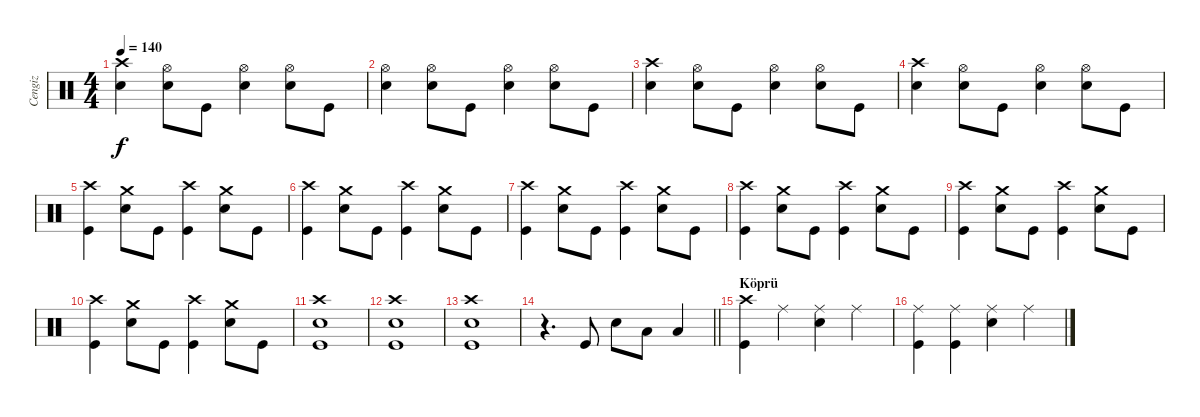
\track ("Cengiz" "Cengiz") {instrument percussion}
\staff {score}
\articulation defaults
\ts (4 4)
\tempo 140
\clef neutral
\ks c
("Crash high (hit)" "Electric Snare (hit)").4{dy f} ("Hi-Hat (open)" "Electric Snare (hit)").8 "Kick (hit)".8 ("Hi-Hat (open)" "Electric Snare (hit)").4 ("Hi-Hat (open)" "Electric Snare (hit)").8 "Kick (hit)".8 |
("Hi-Hat (open)" "Electric Snare (hit)").4 ("Hi-Hat (open)" "Electric Snare (hit)").8 "Kick (hit)".8 ("Hi-Hat (open)" "Electric Snare (hit)").4 ("Hi-Hat (open)" "Electric Snare (hit)").8 "Kick (hit)".8 |
("Crash high (hit)" "Electric Snare (hit)").4 ("Hi-Hat (open)" "Electric Snare (hit)").8 "Kick (hit)".8 ("Hi-Hat (open)" "Electric Snare (hit)").4 ("Hi-Hat (open)" "Electric Snare (hit)").8 "Kick (hit)".8 |
("Crash high (hit)" "Electric Snare (hit)").4 ("Hi-Hat (open)" "Electric Snare (hit)").8 "Kick (hit)".8 ("Hi-Hat (open)" "Electric Snare (hit)").4 ("Hi-Hat (open)" "Electric Snare (hit)").8 "Kick (hit)".8 |
("Crash high (hit)" "Kick (hit)").4 ("Crash medium (hit)" "Electric Snare (hit)").8 "Kick (hit)".8 ("Crash high (hit)" "Kick (hit)").4 ("Crash medium (hit)" "Electric Snare (hit)").8 "Kick (hit)".8 |
("Crash high (hit)" "Kick (hit)").4 ("Crash medium (hit)" "Electric Snare (hit)").8 "Kick (hit)".8 ("Crash high (hit)" "Kick (hit)").4 ("Crash medium (hit)" "Electric Snare (hit)").8 "Kick (hit)".8 |
("Crash high (hit)" "Kick (hit)").4 ("Crash medium (hit)" "Electric Snare (hit)").8 "Kick (hit)".8 ("Crash high (hit)" "Kick (hit)").4 ("Crash medium (hit)" "Electric Snare (hit)").8 "Kick (hit)".8 |
("Crash high (hit)" "Kick (hit)").4 ("Crash medium (hit)" "Electric Snare (hit)").8 "Kick (hit)".8 ("Crash high (hit)" "Kick (hit)").4 ("Crash medium (hit)" "Electric Snare (hit)").8 "Kick (hit)".8 |
("Crash high (hit)" "Kick (hit)").4 ("Crash medium (hit)" "Electric Snare (hit)").8 "Kick (hit)".8 ("Crash high (hit)" "Kick (hit)").4 ("Crash medium (hit)" "Electric Snare (hit)").8 "Kick (hit)".8 |
("Crash high (hit)" "Kick (hit)").4 ("Crash medium (hit)" "Electric Snare (hit)").8 "Kick (hit)".8 ("Crash high (hit)" "Kick (hit)").4 ("Crash medium (hit)" "Electric Snare (hit)").8 "Kick (hit)".8 |
("Crash high (hit)" "Electric Snare (hit)" "Kick (hit)").1 |
("Crash high (hit)" "Electric Snare (hit)" "Kick (hit)").1 |
("Crash high (hit)" "Electric Snare (hit)" "Kick (hit)").1 |
\barLineRight lightlight
r.4{d} "Kick (hit)".8 "Electric Snare (hit)".8 "Low Tom (hit)".8 "Low Floor Tom (hit)".4 |
\section ("" "Köprü")
("Crash high (hit)" "Kick (hit)").4 "Ride (middle)".4 ("Ride (middle)" "Electric Snare (hit)").4 "Ride (middle)".4 |
("Ride (middle)" "Kick (hit)").4 ("Ride (middle)" "Kick (hit)").4 ("Ride (middle)" "Electric Snare (hit)").4 "Ride (middle)".4
